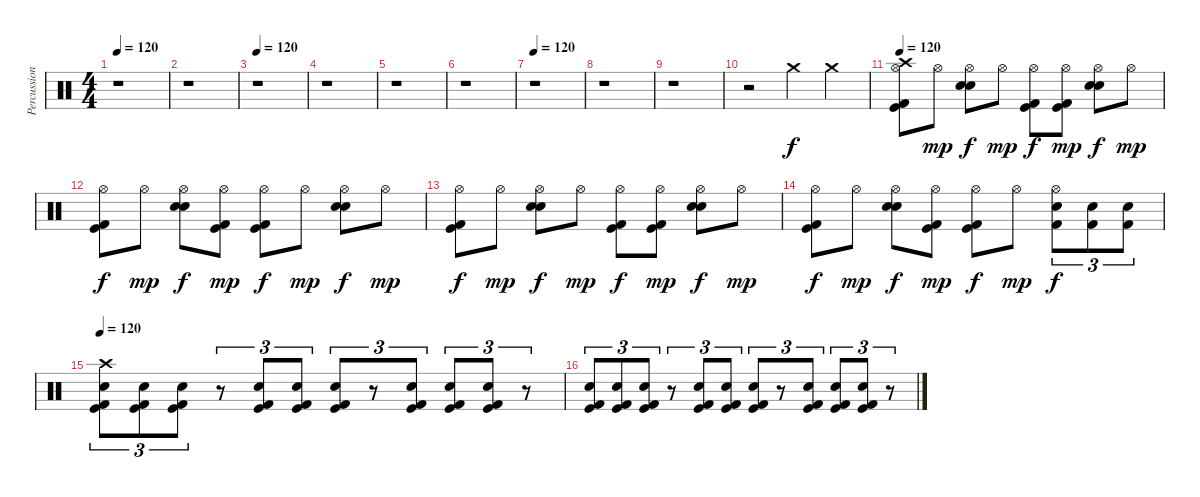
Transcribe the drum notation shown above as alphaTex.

\track ("Percussion" "Percussion") {instrument percussion}
\staff {score}
\articulation defaults
\ts (4 4)
\tempo 120
\clef neutral
\ks c
r.1{dy f} |
r.1 |
\tempo 120
r.1 |
r.1 |
r.1 |
r.1 |
\tempo 120
r.1 |
r.1 |
r.1 |
r.2 "Crash medium (hit)".4 "Crash medium (hit)".4 |
\tempo 120
("Hi-Hat (open)" "Crash high (hit)" "Kick (hit) 2" "Kick (hit)").8 "Hi-Hat (open)".8{dy mp} ("Hi-Hat (open)" "Electric Snare (hit)" "Snare (hit) 2").8{dy f} "Hi-Hat (open)".8{dy mp} ("Hi-Hat (open)" "Kick (hit) 2" "Kick (hit)").8{dy f} ("Hi-Hat (open)" "Kick (hit) 2" "Kick (hit)").8{dy mp} ("Hi-Hat (open)" "Electric Snare (hit)" "Snare (hit) 2").8{dy f} "Hi-Hat (open)".8{dy mp} |
("Hi-Hat (open)" "Kick (hit) 2" "Kick (hit)").8{dy f} "Hi-Hat (open)".8{dy mp} ("Hi-Hat (open)" "Electric Snare (hit)" "Snare (hit) 2").8{dy f} ("Hi-Hat (open)" "Kick (hit) 2" "Kick (hit)").8{dy mp} ("Hi-Hat (open)" "Kick (hit) 2" "Kick (hit)").8{dy f} "Hi-Hat (open)".8{dy mp} ("Hi-Hat (open)" "Electric Snare (hit)" "Snare (hit) 2").8{dy f} "Hi-Hat (open)".8{dy mp} |
("Hi-Hat (open)" "Kick (hit) 2" "Kick (hit)").8{dy f} "Hi-Hat (open)".8{dy mp} ("Hi-Hat (open)" "Electric Snare (hit)" "Snare (hit) 2").8{dy f} "Hi-Hat (open)".8{dy mp} ("Hi-Hat (open)" "Kick (hit) 2" "Kick (hit)").8{dy f} ("Hi-Hat (open)" "Kick (hit) 2" "Kick (hit)").8{dy mp} ("Hi-Hat (open)" "Electric Snare (hit)" "Snare (hit) 2").8{dy f} "Hi-Hat (open)".8{dy mp} |
("Hi-Hat (open)" "Kick (hit) 2" "Kick (hit)").8{dy f} "Hi-Hat (open)".8{dy mp} ("Hi-Hat (open)" "Electric Snare (hit)" "Snare (hit) 2").8{dy f} ("Hi-Hat (open)" "Kick (hit) 2" "Kick (hit)").8{dy mp} ("Hi-Hat (open)" "Kick (hit) 2" "Kick (hit)").8{dy f} "Hi-Hat (open)".8{dy mp} ("Hi-Hat (open)" "Snare (hit) 2" "Kick (hit) 2").8{tu (3 2) dy f} ("Snare (hit) 2" "Kick (hit) 2").8{tu (3 2)} ("Snare (hit) 2" "Kick (hit) 2").8{tu (3 2)} |
\tempo 120
("Crash high (hit)" "Snare (hit) 2" "Kick (hit) 2" "Kick (hit)").8{tu (3 2)} ("Snare (hit) 2" "Kick (hit) 2" "Kick (hit)").8{tu (3 2)} ("Snare (hit) 2" "Kick (hit) 2" "Kick (hit)").8{tu (3 2)} r.8{tu (3 2)} ("Snare (hit) 2" "Kick (hit) 2" "Kick (hit)").8{tu (3 2)} ("Snare (hit) 2" "Kick (hit) 2" "Kick (hit)").8{tu (3 2)} ("Snare (hit) 2" "Kick (hit) 2" "Kick (hit)").8{tu (3 2)} r.8{tu (3 2)} ("Snare (hit) 2" "Kick (hit) 2" "Kick (hit)").8{tu (3 2)} ("Snare (hit) 2" "Kick (hit) 2" "Kick (hit)").8{tu (3 2)} ("Snare (hit) 2" "Kick (hit) 2" "Kick (hit)").8{tu (3 2)} r.8{tu (3 2)} |
("Snare (hit) 2" "Kick (hit) 2" "Kick (hit)").8{tu (3 2)} ("Snare (hit) 2" "Kick (hit) 2" "Kick (hit)").8{tu (3 2)} ("Snare (hit) 2" "Kick (hit) 2" "Kick (hit)").8{tu (3 2)} r.8{tu (3 2)} ("Snare (hit) 2" "Kick (hit) 2" "Kick (hit)").8{tu (3 2)} ("Snare (hit) 2" "Kick (hit) 2" "Kick (hit)").8{tu (3 2)} ("Snare (hit) 2" "Kick (hit) 2" "Kick (hit)").8{tu (3 2)} r.8{tu (3 2)} ("Snare (hit) 2" "Kick (hit) 2" "Kick (hit)").8{tu (3 2)} ("Snare (hit) 2" "Kick (hit) 2" "Kick (hit)").8{tu (3 2)} ("Snare (hit) 2" "Kick (hit) 2" "Kick (hit)").8{tu (3 2)} r.8{tu (3 2)}
